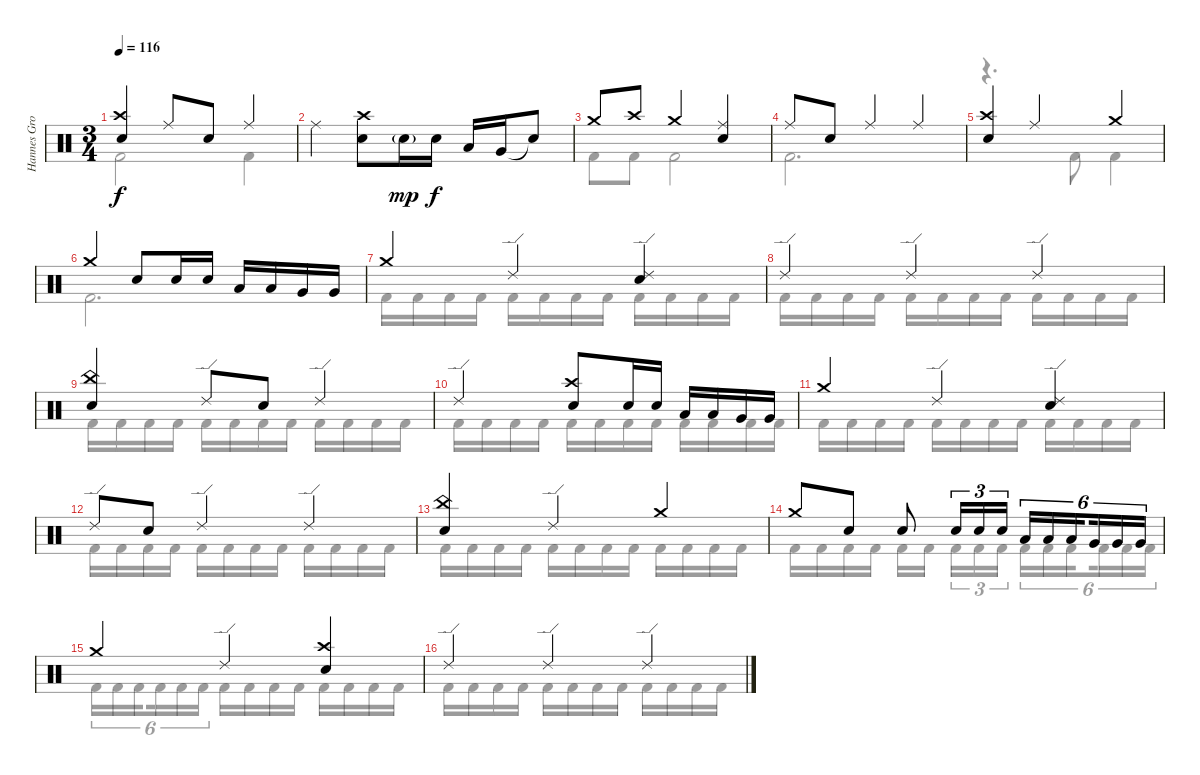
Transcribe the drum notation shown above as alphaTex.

\track ("Hannes Grossman" "Hannes Gro") {instrument percussion}
\staff {score}
\articulation defaults
\voice
\ts (3 4)
\tempo 116
\clef neutral
\ks c
("Crash high (hit)" "Electric Snare (hit)").4{dy f} "Ride (middle)".8 "Electric Snare (hit)".8 "Ride (middle)".4 |
"Ride (middle)".4 ("Crash high (hit)" "Electric Snare (hit)").8 "Electric Snare (hit)"{g}.16{dy mp} "Electric Snare (hit)".16{dy f} "Low Tom (hit)".16 "Very Low Tom (hit)".16 "Snare (hit)"{t}.8 |
"Crash medium (hit)".8 "Crash high (hit)".8 "Crash medium (hit)".4 ("Ride (middle)" "Electric Snare (hit)").4 |
"Ride (middle)".8 "Electric Snare (hit)".8 "Ride (middle)".4 "Ride (middle)".4 |
("Electric Snare (hit)" "Crash high (hit)").4 "Ride (middle)".4 "Crash medium (hit)".4 |
"Crash medium (hit)".4 "Electric Snare (hit)".8 "Electric Snare (hit)".16 "Electric Snare (hit)".16 "Low Tom (hit)".16 "Low Tom (hit)".16 "Very Low Tom (hit)".16 "Very Low Tom (hit)".16 |
"Crash medium (hit)".4 "Ride (edge) 2".4 ("Ride (edge) 2" "Electric Snare (hit)").4 |
"Ride (edge) 2".4 "Ride (edge) 2".4 "Ride (edge) 2".4 |
("China (hit)" "Electric Snare (hit)").4 "Ride (edge) 2".8 "Electric Snare (hit)".8 "Ride (edge) 2".4 |
"Ride (edge) 2".4 ("Crash high (hit)" "Electric Snare (hit)").8 "Electric Snare (hit)".16 "Electric Snare (hit)".16 "Low Tom (hit)".16 "Low Tom (hit)".16 "Very Low Tom (hit)".16 "Very Low Tom (hit)".16 |
"Crash medium (hit)".4 "Ride (edge) 2".4 ("Ride (edge) 2" "Electric Snare (hit)").4 |
"Ride (edge) 2".8 "Electric Snare (hit)".8 "Ride (edge) 2".4 "Ride (edge) 2".4 |
("China (hit)" "Electric Snare (hit)").4 "Ride (edge) 2".4 "Crash medium (hit)".4 |
"Crash medium (hit)".8 "Electric Snare (hit)".8 "Electric Snare (hit)".8 "Electric Snare (hit)".16{tu (3 2)} "Electric Snare (hit)".16{tu (3 2)} "Electric Snare (hit)".16{tu (3 2)} "Low Tom (hit)".16{tu (6 4)} "Low Tom (hit)".16{tu (6 4)} "Low Tom (hit)".16{tu (6 4) beam splitsecondary} "Very Low Tom (hit)".16{tu (6 4)} "Very Low Tom (hit)".16{tu (6 4)} "Very Low Tom (hit)".16{tu (6 4)} |
"Crash medium (hit)".4 "Ride (edge) 2".4 ("Crash high (hit)" "Electric Snare (hit)").4 |
"Ride (edge) 2".4 "Ride (edge) 2".4 "Ride (edge) 2".4
\voice
\clef neutral
\ottava regular
\simile none
\ks c "Kick (hit) 2".2{dy f} "Kick (hit) 2".4
|
|
"Kick (hit) 2".8 "Kick (hit) 2".8 "Kick (hit) 2".2 |
"Kick (hit) 2".2{d} |
r.4{d} "Kick (hit) 2".8 "Kick (hit) 2".4 |
"Kick (hit) 2".2{d} |
"Kick (hit) 2".16 "Kick (hit) 2".16 "Kick (hit) 2".16 "Kick (hit) 2".16 "Kick (hit) 2".16 "Kick (hit) 2".16 "Kick (hit) 2".16 "Kick (hit) 2".16 "Kick (hit) 2".16 "Kick (hit) 2".16 "Kick (hit) 2".16 "Kick (hit) 2".16 |
"Kick (hit) 2".16 "Kick (hit) 2".16 "Kick (hit) 2".16 "Kick (hit) 2".16 "Kick (hit) 2".16 "Kick (hit) 2".16 "Kick (hit) 2".16 "Kick (hit) 2".16 "Kick (hit) 2".16 "Kick (hit) 2".16 "Kick (hit) 2".16 "Kick (hit) 2".16 |
"Kick (hit) 2".16 "Kick (hit) 2".16 "Kick (hit) 2".16 "Kick (hit) 2".16 "Kick (hit) 2".16 "Kick (hit) 2".16 "Kick (hit) 2".16 "Kick (hit) 2".16 "Kick (hit) 2".16 "Kick (hit) 2".16 "Kick (hit) 2".16 "Kick (hit) 2".16 |
"Kick (hit) 2".16 "Kick (hit) 2".16 "Kick (hit) 2".16 "Kick (hit) 2".16 "Kick (hit) 2".16 "Kick (hit) 2".16 "Kick (hit) 2".16 "Kick (hit) 2".16 "Kick (hit) 2".16 "Kick (hit) 2".16 "Kick (hit) 2".16 "Kick (hit) 2".16 |
"Kick (hit) 2".16 "Kick (hit) 2".16 "Kick (hit) 2".16 "Kick (hit) 2".16 "Kick (hit) 2".16 "Kick (hit) 2".16 "Kick (hit) 2".16 "Kick (hit) 2".16 "Kick (hit) 2".16 "Kick (hit) 2".16 "Kick (hit) 2".16 "Kick (hit) 2".16 |
"Kick (hit) 2".16 "Kick (hit) 2".16 "Kick (hit) 2".16 "Kick (hit) 2".16 "Kick (hit) 2".16 "Kick (hit) 2".16 "Kick (hit) 2".16 "Kick (hit) 2".16 "Kick (hit) 2".16 "Kick (hit) 2".16 "Kick (hit) 2".16 "Kick (hit) 2".16 |
"Kick (hit) 2".16 "Kick (hit) 2".16 "Kick (hit) 2".16 "Kick (hit) 2".16 "Kick (hit) 2".16 "Kick (hit) 2".16 "Kick (hit) 2".16 "Kick (hit) 2".16 "Kick (hit) 2".16 "Kick (hit) 2".16 "Kick (hit) 2".16 "Kick (hit) 2".16 |
"Kick (hit) 2".16 "Kick (hit) 2".16 "Kick (hit) 2".16 "Kick (hit) 2".16 "Kick (hit) 2".16 "Kick (hit) 2".16{beam splitsecondary} "Kick (hit) 2".16{tu (3 2)} "Kick (hit) 2".16{tu (3 2)} "Kick (hit) 2".16{tu (3 2)} "Kick (hit) 2".16{tu (6 4)} "Kick (hit) 2".16{tu (6 4)} "Kick (hit) 2".16{tu (6 4) beam splitsecondary} "Kick (hit) 2".16{tu (6 4)} "Kick (hit) 2".16{tu (6 4)} "Kick (hit) 2".16{tu (6 4)} |
"Kick (hit) 2".16{tu (6 4)} "Kick (hit) 2".16{tu (6 4)} "Kick (hit) 2".16{tu (6 4) beam splitsecondary} "Kick (hit) 2".16{tu (6 4)} "Kick (hit) 2".16{tu (6 4)} "Kick (hit) 2".16{tu (6 4)} "Kick (hit) 2".16 "Kick (hit) 2".16 "Kick (hit) 2".16 "Kick (hit) 2".16 "Kick (hit) 2".16 "Kick (hit) 2".16 "Kick (hit) 2".16 "Kick (hit) 2".16 |
"Kick (hit) 2".16 "Kick (hit) 2".16 "Kick (hit) 2".16 "Kick (hit) 2".16 "Kick (hit) 2".16 "Kick (hit) 2".16 "Kick (hit) 2".16 "Kick (hit) 2".16 "Kick (hit) 2".16 "Kick (hit) 2".16 "Kick (hit) 2".16 "Kick (hit) 2".16
